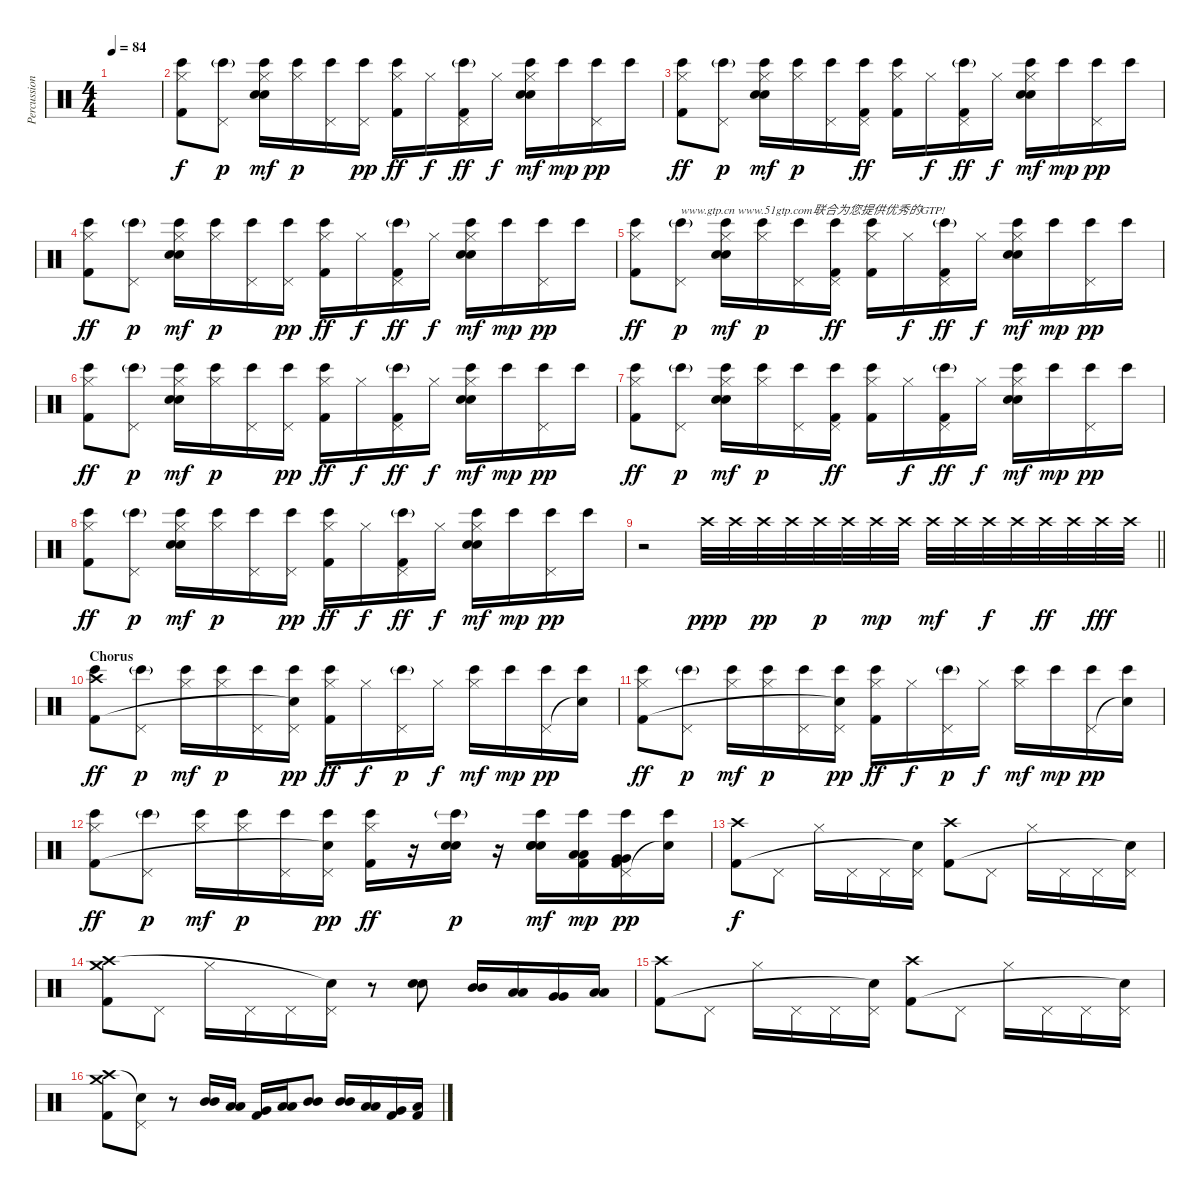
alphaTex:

\track ("Percussion" "Percussion") {instrument percussion}
\staff {score}
\articulation defaults
\ts (4 4)
\tempo 84
\clef neutral
\ks c
|
("Bongo High (hit)" "Hi-Hat (closed)" "Kick (hit) 2").8 ("Bongo High (hit)"{g} "Pedal Hi-Hat (hit)").8{dy p} ("Hand Clap (hit)" "Bongo High (hit)" "Hi-Hat (closed)" "Electric Snare (hit)").16{dy mf} ("Bongo High (hit)" "Hi-Hat (closed)").16{dy p} ("Bongo High (hit)" "Pedal Hi-Hat (hit)").16 ("Bongo High (hit)" "Pedal Hi-Hat (hit)").16{dy pp} ("Bongo High (hit)" "Hi-Hat (closed)" "Kick (hit) 2").16{dy ff} "Hi-Hat (closed)".16{dy f} ("Bongo High (hit)"{g} "Pedal Hi-Hat (hit)" "Kick (hit) 2").16{dy ff} "Hi-Hat (closed)".16{dy f} ("Hand Clap (hit)" "Bongo High (hit)" "Hi-Hat (closed)" "Electric Snare (hit)").16{dy mf} "Bongo High (hit)".16{dy mp} ("Bongo High (hit)" "Pedal Hi-Hat (hit)").16{dy pp} "Bongo High (hit)".16 |
("Bongo High (hit)" "Hi-Hat (closed)" "Kick (hit) 2").8{dy ff} ("Bongo High (hit)"{g} "Pedal Hi-Hat (hit)").8{dy p} ("Hand Clap (hit)" "Bongo High (hit)" "Hi-Hat (closed)" "Electric Snare (hit)").16{dy mf} ("Bongo High (hit)" "Hi-Hat (closed)").16{dy p} ("Bongo High (hit)" "Pedal Hi-Hat (hit)").16 ("Bongo High (hit)" "Pedal Hi-Hat (hit)" "Kick (hit) 2").16{dy ff} ("Bongo High (hit)" "Hi-Hat (closed)" "Kick (hit) 2").16 "Hi-Hat (closed)".16{dy f} ("Bongo High (hit)"{g} "Pedal Hi-Hat (hit)" "Kick (hit) 2").16{dy ff} "Hi-Hat (closed)".16{dy f} ("Hand Clap (hit)" "Bongo High (hit)" "Hi-Hat (closed)" "Electric Snare (hit)").16{dy mf} "Bongo High (hit)".16{dy mp} ("Bongo High (hit)" "Pedal Hi-Hat (hit)").16{dy pp} "Bongo High (hit)".16 |
("Bongo High (hit)" "Hi-Hat (closed)" "Kick (hit) 2").8{dy ff} ("Bongo High (hit)"{g} "Pedal Hi-Hat (hit)").8{dy p} ("Hand Clap (hit)" "Bongo High (hit)" "Hi-Hat (closed)" "Electric Snare (hit)").16{dy mf} ("Bongo High (hit)" "Hi-Hat (closed)").16{dy p} ("Bongo High (hit)" "Pedal Hi-Hat (hit)").16 ("Bongo High (hit)" "Pedal Hi-Hat (hit)").16{dy pp} ("Bongo High (hit)" "Hi-Hat (closed)" "Kick (hit) 2").16{dy ff} "Hi-Hat (closed)".16{dy f} ("Bongo High (hit)"{g} "Pedal Hi-Hat (hit)" "Kick (hit) 2").16{dy ff} "Hi-Hat (closed)".16{dy f} ("Hand Clap (hit)" "Bongo High (hit)" "Hi-Hat (closed)" "Electric Snare (hit)").16{dy mf} "Bongo High (hit)".16{dy mp} ("Bongo High (hit)" "Pedal Hi-Hat (hit)").16{dy pp} "Bongo High (hit)".16 |
("Bongo High (hit)" "Hi-Hat (closed)" "Kick (hit) 2").8{dy ff} ("Bongo High (hit)"{g} "Pedal Hi-Hat (hit)").8{txt "www.gtp.cn www.51gtp.com联合为您提供优秀的GTP!" dy p} ("Hand Clap (hit)" "Bongo High (hit)" "Hi-Hat (closed)" "Electric Snare (hit)").16{dy mf} ("Bongo High (hit)" "Hi-Hat (closed)").16{dy p} ("Bongo High (hit)" "Pedal Hi-Hat (hit)").16 ("Bongo High (hit)" "Pedal Hi-Hat (hit)" "Kick (hit) 2").16{dy ff} ("Bongo High (hit)" "Hi-Hat (closed)" "Kick (hit) 2").16 "Hi-Hat (closed)".16{dy f} ("Bongo High (hit)"{g} "Pedal Hi-Hat (hit)" "Kick (hit) 2").16{dy ff} "Hi-Hat (closed)".16{dy f} ("Hand Clap (hit)" "Bongo High (hit)" "Hi-Hat (closed)" "Electric Snare (hit)").16{dy mf} "Bongo High (hit)".16{dy mp} ("Bongo High (hit)" "Pedal Hi-Hat (hit)").16{dy pp} "Bongo High (hit)".16 |
("Bongo High (hit)" "Hi-Hat (closed)" "Kick (hit) 2").8{dy ff} ("Bongo High (hit)"{g} "Pedal Hi-Hat (hit)").8{dy p} ("Hand Clap (hit)" "Bongo High (hit)" "Hi-Hat (closed)" "Electric Snare (hit)").16{dy mf} ("Bongo High (hit)" "Hi-Hat (closed)").16{dy p} ("Bongo High (hit)" "Pedal Hi-Hat (hit)").16 ("Bongo High (hit)" "Pedal Hi-Hat (hit)").16{dy pp} ("Bongo High (hit)" "Hi-Hat (closed)" "Kick (hit) 2").16{dy ff} "Hi-Hat (closed)".16{dy f} ("Bongo High (hit)"{g} "Pedal Hi-Hat (hit)" "Kick (hit) 2").16{dy ff} "Hi-Hat (closed)".16{dy f} ("Hand Clap (hit)" "Bongo High (hit)" "Hi-Hat (closed)" "Electric Snare (hit)").16{dy mf} "Bongo High (hit)".16{dy mp} ("Bongo High (hit)" "Pedal Hi-Hat (hit)").16{dy pp} "Bongo High (hit)".16 |
("Bongo High (hit)" "Hi-Hat (closed)" "Kick (hit) 2").8{dy ff} ("Bongo High (hit)"{g} "Pedal Hi-Hat (hit)").8{dy p} ("Hand Clap (hit)" "Bongo High (hit)" "Hi-Hat (closed)" "Electric Snare (hit)").16{dy mf} ("Bongo High (hit)" "Hi-Hat (closed)").16{dy p} ("Bongo High (hit)" "Pedal Hi-Hat (hit)").16 ("Bongo High (hit)" "Pedal Hi-Hat (hit)" "Kick (hit) 2").16{dy ff} ("Bongo High (hit)" "Hi-Hat (closed)" "Kick (hit) 2").16 "Hi-Hat (closed)".16{dy f} ("Bongo High (hit)"{g} "Pedal Hi-Hat (hit)" "Kick (hit) 2").16{dy ff} "Hi-Hat (closed)".16{dy f} ("Hand Clap (hit)" "Bongo High (hit)" "Hi-Hat (closed)" "Electric Snare (hit)").16{dy mf} "Bongo High (hit)".16{dy mp} ("Bongo High (hit)" "Pedal Hi-Hat (hit)").16{dy pp} "Bongo High (hit)".16 |
("Bongo High (hit)" "Hi-Hat (closed)" "Kick (hit) 2").8{dy ff} ("Bongo High (hit)"{g} "Pedal Hi-Hat (hit)").8{dy p} ("Hand Clap (hit)" "Bongo High (hit)" "Hi-Hat (closed)" "Electric Snare (hit)").16{dy mf} ("Bongo High (hit)" "Hi-Hat (closed)").16{dy p} ("Bongo High (hit)" "Pedal Hi-Hat (hit)").16 ("Bongo High (hit)" "Pedal Hi-Hat (hit)").16{dy pp} ("Bongo High (hit)" "Hi-Hat (closed)" "Kick (hit) 2").16{dy ff} "Hi-Hat (closed)".16{dy f} ("Bongo High (hit)"{g} "Pedal Hi-Hat (hit)" "Kick (hit) 2").16{dy ff} "Hi-Hat (closed)".16{dy f} ("Hand Clap (hit)" "Bongo High (hit)" "Hi-Hat (closed)" "Electric Snare (hit)").16{dy mf} "Bongo High (hit)".16{dy mp} ("Bongo High (hit)" "Pedal Hi-Hat (hit)").16{dy pp} "Bongo High (hit)".16 |
\barLineRight lightlight
r.2 "Crash high (hit)".32{dy ppp} "Crash high (hit)".32 "Crash high (hit)".32{dy pp} "Crash high (hit)".32 "Crash high (hit)".32{dy p} "Crash high (hit)".32 "Crash high (hit)".32{dy mp} "Crash high (hit)".32 "Crash high (hit)".32{dy mf} "Crash high (hit)".32 "Crash high (hit)".32{dy f} "Crash high (hit)".32 "Crash high (hit)".32{dy ff} "Crash high (hit)".32 "Crash high (hit)".32{dy fff} "Crash high (hit)".32 |
\section ("" "Chorus")
("Bongo High (hit)" "Crash high (hit)" "Kick (hit) 2").8{dy ff} ("Bongo High (hit)"{g} "Pedal Hi-Hat (hit)").8{dy p} ("Bongo High (hit)" "Hi-Hat (closed)").16{dy mf} ("Bongo High (hit)" "Hi-Hat (closed)").16{dy p} ("Bongo High (hit)" "Pedal Hi-Hat (hit)").16 ("Bongo High (hit)" "Pedal Hi-Hat (hit)" "Snare (hit)"{t}).16{dy pp} ("Bongo High (hit)" "Hi-Hat (closed)" "Kick (hit) 2").16{dy ff} "Hi-Hat (closed)".16{dy f} ("Bongo High (hit)"{g} "Pedal Hi-Hat (hit)").16{dy p} "Hi-Hat (closed)".16{dy f} ("Bongo High (hit)" "Hi-Hat (closed)").16{dy mf} "Bongo High (hit)".16{dy mp} ("Bongo High (hit)" "Pedal Hi-Hat (hit)").16{dy pp} ("Bongo High (hit)" "Snare (hit)"{t}).16 |
("Bongo High (hit)" "Hi-Hat (closed)" "Kick (hit) 2").8{dy ff} ("Bongo High (hit)"{g} "Pedal Hi-Hat (hit)").8{dy p} ("Bongo High (hit)" "Hi-Hat (closed)").16{dy mf} ("Bongo High (hit)" "Hi-Hat (closed)").16{dy p} ("Bongo High (hit)" "Pedal Hi-Hat (hit)").16 ("Bongo High (hit)" "Pedal Hi-Hat (hit)" "Snare (hit)"{t}).16{dy pp} ("Bongo High (hit)" "Hi-Hat (closed)" "Kick (hit) 2").16{dy ff} "Hi-Hat (closed)".16{dy f} ("Bongo High (hit)"{g} "Pedal Hi-Hat (hit)").16{dy p} "Hi-Hat (closed)".16{dy f} ("Bongo High (hit)" "Hi-Hat (closed)").16{dy mf} "Bongo High (hit)".16{dy mp} ("Bongo High (hit)" "Pedal Hi-Hat (hit)").16{dy pp} ("Bongo High (hit)" "Snare (hit)"{t}).16 |
("Bongo High (hit)" "Hi-Hat (closed)" "Kick (hit) 2").8{dy ff} ("Bongo High (hit)"{g} "Pedal Hi-Hat (hit)").8{dy p} ("Bongo High (hit)" "Hi-Hat (closed)").16{dy mf} ("Bongo High (hit)" "Hi-Hat (closed)").16{dy p} ("Bongo High (hit)" "Pedal Hi-Hat (hit)").16 ("Bongo High (hit)" "Pedal Hi-Hat (hit)" "Snare (hit)"{t}).16{dy pp} ("Bongo High (hit)" "Hi-Hat (closed)" "Kick (hit) 2").16{dy ff} r.16 ("Bongo High (hit)"{g} "Electric Snare (hit)" "Electric Snare (hit)").16{bd 120 dy p} r.16 ("Bongo High (hit)" "Electric Snare (hit)" "Electric Snare (hit)" "Snare (hit)").16{bd 120 dy mf} ("Bongo High (hit)" "Low Tom (hit)" "Low Tom (hit)" "Kick (hit) 2").16{dy mp} ("Bongo High (hit)" "Pedal Hi-Hat (hit)" "Very Low Tom (hit)" "Very Low Tom (hit)" "Kick (hit) 2").16{dy pp} ("Bongo High (hit)" "Snare (hit)"{t}).16 |
("Crash high (hit)" "Kick (hit) 2").8{dy f} "Pedal Hi-Hat (hit)".8 "Hi-Hat (closed)".16 "Pedal Hi-Hat (hit)".16 "Pedal Hi-Hat (hit)".16 ("Pedal Hi-Hat (hit)" "Snare (hit)"{t}).16 ("Crash high (hit)" "Kick (hit) 2").8 "Pedal Hi-Hat (hit)".8 "Hi-Hat (closed)".16 "Pedal Hi-Hat (hit)".16 "Pedal Hi-Hat (hit)".16 ("Pedal Hi-Hat (hit)" "Snare (hit)"{t}).16 |
("Crash medium (hit)" "Crash high (hit)" "Kick (hit) 2").8 "Pedal Hi-Hat (hit)".8 "Hi-Hat (closed)".16 "Pedal Hi-Hat (hit)".16 "Pedal Hi-Hat (hit)".16 ("Pedal Hi-Hat (hit)" "Snare (hit)"{t}).16 r.8 ("Electric Snare (hit)" "Electric Snare (hit)").8{bd 120} ("Mid Tom (hit)" "Mid Tom (hit)").16 ("Low Tom (hit)" "Low Tom (hit)").16 ("Very Low Tom (hit)" "Very Low Tom (hit)").16 ("Low Floor Tom (hit)" "Low Floor Tom (hit)").16 |
("Crash high (hit)" "Kick (hit) 2").8 "Pedal Hi-Hat (hit)".8 "Hi-Hat (closed)".16 "Pedal Hi-Hat (hit)".16 "Pedal Hi-Hat (hit)".16 ("Pedal Hi-Hat (hit)" "Snare (hit)"{t}).16 ("Crash high (hit)" "Kick (hit) 2").8 "Pedal Hi-Hat (hit)".8 "Hi-Hat (closed)".16 "Pedal Hi-Hat (hit)".16 "Pedal Hi-Hat (hit)".16 ("Pedal Hi-Hat (hit)" "Snare (hit)"{t}).16 |
("Crash medium (hit)" "Crash high (hit)" "Kick (hit) 2").8 ("Pedal Hi-Hat (hit)" "Snare (hit)"{t}).8 r.8 ("Mid Tom (hit)" "Mid Tom (hit)").16 ("Low Tom (hit)" "Low Tom (hit)").16 ("Very Low Tom (hit)" "Kick (hit) 2").16 ("Low Tom (hit)" "Low Tom (hit)").16 ("Mid Tom (hit)" "Mid Tom (hit)").8 ("Mid Tom (hit)" "Mid Tom (hit)").16 ("Low Tom (hit)" "Low Tom (hit)").16 ("Very Low Tom (hit)" "Kick (hit) 2").16 ("Low Floor Tom (hit)" "Kick (hit) 2").16
